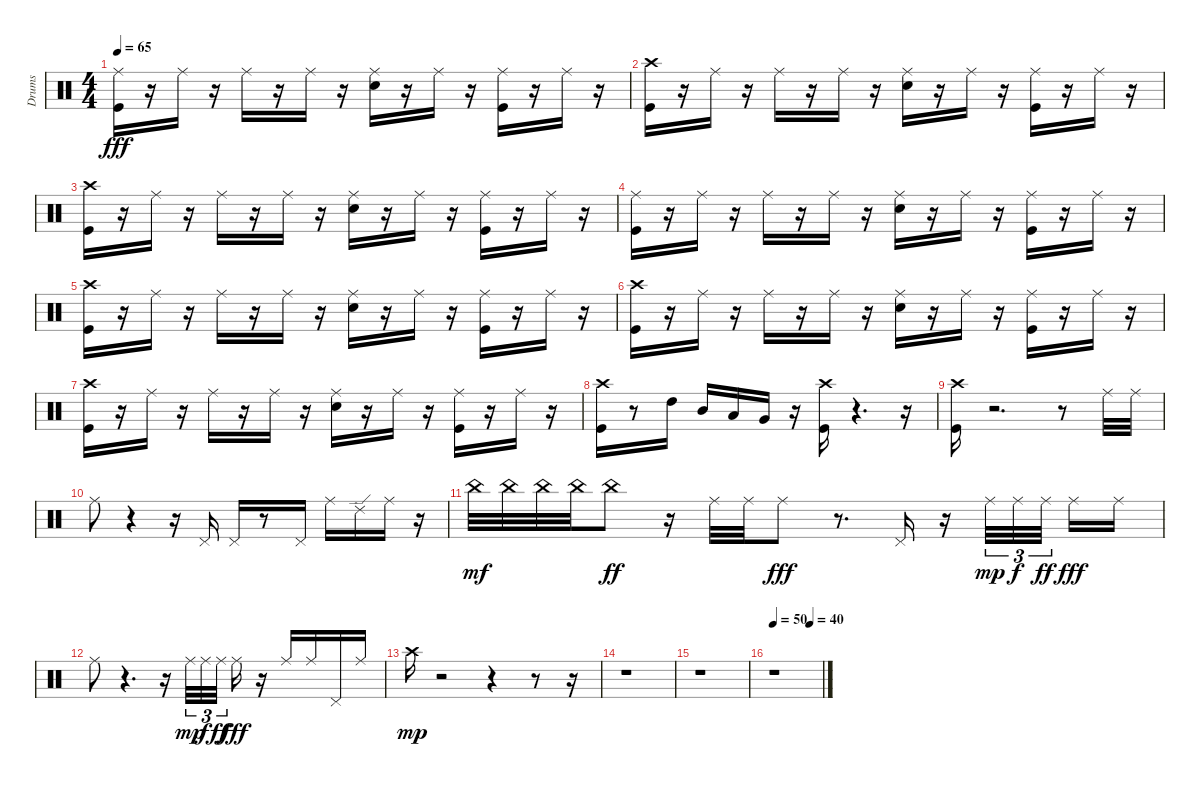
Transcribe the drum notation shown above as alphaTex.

\track ("Drums" "Drums") {instrument percussion}
\staff {score}
\articulation defaults
\ts (4 4)
\tempo 65
\clef neutral
\ks c
("Kick (hit)" "Ride (middle)").16{dy fff} r.16 "Ride (middle)".16 r.16 "Ride (middle)".16 r.16 "Ride (middle)".16 r.16 ("Snare (hit) 2" "Ride (middle)").16 r.16 "Ride (middle)".16 r.16 ("Kick (hit)" "Ride (middle)").16 r.16 "Ride (middle)".16 r.16 |
("Kick (hit)" "Crash high (hit)").16 r.16 "Ride (middle)".16 r.16 "Ride (middle)".16 r.16 "Ride (middle)".16 r.16 ("Ride (middle)" "Snare (hit) 2").16 r.16 "Ride (middle)".16 r.16 ("Kick (hit)" "Ride (middle)").16 r.16 "Ride (middle)".16 r.16 |
("Kick (hit)" "Crash high (hit)").16 r.16 "Ride (middle)".16 r.16 "Ride (middle)".16 r.16 "Ride (middle)".16 r.16 ("Ride (middle)" "Snare (hit) 2").16 r.16 "Ride (middle)".16 r.16 ("Kick (hit)" "Ride (middle)").16 r.16 "Ride (middle)".16 r.16 |
("Kick (hit)" "Ride (middle)").16 r.16 "Ride (middle)".16 r.16 "Ride (middle)".16 r.16 "Ride (middle)".16 r.16 ("Snare (hit) 2" "Ride (middle)").16 r.16 "Ride (middle)".16 r.16 ("Kick (hit)" "Ride (middle)").16 r.16 "Ride (middle)".16 r.16 |
("Kick (hit)" "Crash high (hit)").16 r.16 "Ride (middle)".16 r.16 "Ride (middle)".16 r.16 "Ride (middle)".16 r.16 ("Ride (middle)" "Snare (hit) 2").16 r.16 "Ride (middle)".16 r.16 ("Kick (hit)" "Ride (middle)").16 r.16 "Ride (middle)".16 r.16 |
("Kick (hit)" "Crash high (hit)").16 r.16 "Ride (middle)".16 r.16 "Ride (middle)".16 r.16 "Ride (middle)".16 r.16 ("Snare (hit) 2" "Ride (middle)").16 r.16 "Ride (middle)".16 r.16 ("Kick (hit)" "Ride (middle)").16 r.16 "Ride (middle)".16 r.16 |
("Kick (hit)" "Crash high (hit)").16 r.16 "Ride (middle)".16 r.16 "Ride (middle)".16 r.16 "Ride (middle)".16 r.16 ("Snare (hit) 2" "Ride (middle)").16 r.16 "Ride (middle)".16 r.16 ("Kick (hit)" "Ride (middle)").16 r.16 "Ride (middle)".16 r.16 |
("Kick (hit)" "Crash high (hit)").16 r.8 "High Tom (hit)".16 "Mid Tom (hit)".16 "Low Tom (hit)".16 "Very Low Tom (hit)".16 r.16 ("Kick (hit)" "Crash high (hit)").16 r.4{d} r.16 |
("Crash high (hit)" "Kick (hit)").16 r.2{d} r.8 "Ride (middle)".32 "Ride (middle)".32 |
"Ride (middle)".8 r.4 r.16 "Pedal Hi-Hat (hit)".16 "Pedal Hi-Hat (hit)".16 r.8 "Pedal Hi-Hat (hit)".16 "Ride (middle)".16 "Ride (edge) 2".16 "Ride (middle)".16 r.16 |
"China (hit)".32{dy mf} "China (hit)".32 "China (hit)".32 "China (hit)".32 "China (hit)".8{dy ff} r.16 "Ride (middle)".32 "Ride (middle)".32 "Ride (middle)".8{dy fff} r.8{d} "Pedal Hi-Hat (hit)".16 r.16 "Ride (middle)".32{tu (3 2) dy mp} "Ride (middle)".32{tu (3 2) dy f} "Ride (middle)".32{tu (3 2) dy ff beam splitsecondary} "Ride (middle)".16{dy fff} "Ride (middle)".16 |
"Ride (middle)".8 r.4{d} r.16 "Ride (middle)".32{tu (3 2) dy mp} "Ride (middle)".32{tu (3 2) dy f} "Ride (middle)".32{tu (3 2) dy ff beam splitsecondary} "Ride (middle)".16{dy fff} r.16 "Ride (middle)".16 "Ride (middle)".16 "Pedal Hi-Hat (hit)".16 "Ride (middle)".16 |
"Crash high (hit)".16{dy mp} r.2 r.4 r.8 r.16 |
r.1 |
r.1 |
\tempo 50
\tempo (40 0.75)
r.1
